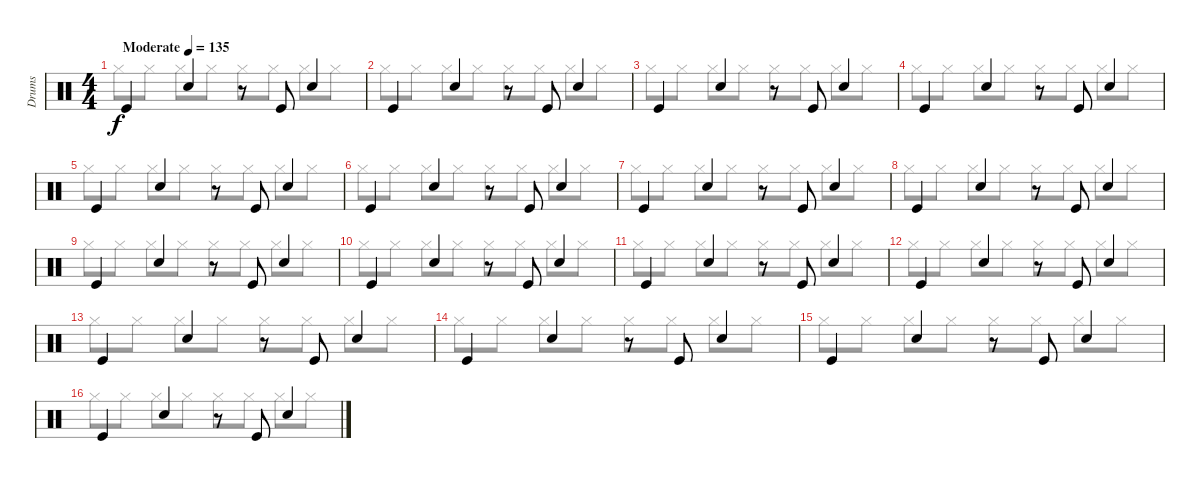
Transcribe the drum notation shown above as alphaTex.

\track ("Drums" "Drums") {instrument percussion}
\staff {score}
\articulation defaults
\voice
\ts (4 4)
\tempo (135 "Moderate")
\clef neutral
\ks c "Kick (hit)".4{dy f} "Snare (hit) 2".4
r.8 "Kick (hit)".8 "Snare (hit) 2".4 |
"Kick (hit)".4 "Snare (hit) 2".4 r.8 "Kick (hit)".8 "Snare (hit) 2".4 |
"Kick (hit)".4 "Snare (hit) 2".4 r.8 "Kick (hit)".8 "Snare (hit) 2".4 |
"Kick (hit)".4 "Snare (hit) 2".4 r.8 "Kick (hit)".8 "Snare (hit) 2".4 |
"Kick (hit)".4 "Snare (hit) 2".4 r.8 "Kick (hit)".8 "Snare (hit) 2".4 |
"Kick (hit)".4 "Snare (hit) 2".4 r.8 "Kick (hit)".8 "Snare (hit) 2".4 |
"Kick (hit)".4 "Snare (hit) 2".4 r.8 "Kick (hit)".8 "Snare (hit) 2".4 |
"Kick (hit)".4 "Snare (hit) 2".4 r.8 "Kick (hit)".8 "Snare (hit) 2".4 |
"Kick (hit)".4 "Snare (hit) 2".4 r.8 "Kick (hit)".8 "Snare (hit) 2".4 |
"Kick (hit)".4 "Snare (hit) 2".4 r.8 "Kick (hit)".8 "Snare (hit) 2".4 |
"Kick (hit)".4 "Snare (hit) 2".4 r.8 "Kick (hit)".8 "Snare (hit) 2".4 |
"Kick (hit)".4 "Snare (hit) 2".4 r.8 "Kick (hit)".8 "Snare (hit) 2".4 |
"Kick (hit)".4 "Snare (hit) 2".4 r.8 "Kick (hit)".8 "Snare (hit) 2".4 |
"Kick (hit)".4 "Snare (hit) 2".4 r.8 "Kick (hit)".8 "Snare (hit) 2".4 |
"Kick (hit)".4 "Snare (hit) 2".4 r.8 "Kick (hit)".8 "Snare (hit) 2".4 |
"Kick (hit)".4 "Snare (hit) 2".4 r.8 "Kick (hit)".8 "Snare (hit) 2".4
\voice
\clef neutral
\ottava regular
\simile none
\ks c "Hi-Hat (closed)".8{dy f} "Hi-Hat (closed)".8 "Hi-Hat (closed)".8 "Hi-Hat (closed)".8 "Hi-Hat (closed)".8 "Hi-Hat (closed)".8 "Hi-Hat (closed)".8 "Hi-Hat (closed)".8
|
"Hi-Hat (closed)".8 "Hi-Hat (closed)".8 "Hi-Hat (closed)".8 "Hi-Hat (closed)".8 "Hi-Hat (closed)".8 "Hi-Hat (closed)".8 "Hi-Hat (closed)".8 "Hi-Hat (closed)".8 |
"Hi-Hat (closed)".8 "Hi-Hat (closed)".8 "Hi-Hat (closed)".8 "Hi-Hat (closed)".8 "Hi-Hat (closed)".8 "Hi-Hat (closed)".8 "Hi-Hat (closed)".8 "Hi-Hat (closed)".8 |
"Hi-Hat (closed)".8 "Hi-Hat (closed)".8 "Hi-Hat (closed)".8 "Hi-Hat (closed)".8 "Hi-Hat (closed)".8 "Hi-Hat (closed)".8 "Hi-Hat (closed)".8 "Hi-Hat (closed)".8 |
"Hi-Hat (closed)".8 "Hi-Hat (closed)".8 "Hi-Hat (closed)".8 "Hi-Hat (closed)".8 "Hi-Hat (closed)".8 "Hi-Hat (closed)".8 "Hi-Hat (closed)".8 "Hi-Hat (closed)".8 |
"Hi-Hat (closed)".8 "Hi-Hat (closed)".8 "Hi-Hat (closed)".8 "Hi-Hat (closed)".8 "Hi-Hat (closed)".8 "Hi-Hat (closed)".8 "Hi-Hat (closed)".8 "Hi-Hat (closed)".8 |
"Hi-Hat (closed)".8 "Hi-Hat (closed)".8 "Hi-Hat (closed)".8 "Hi-Hat (closed)".8 "Hi-Hat (closed)".8 "Hi-Hat (closed)".8 "Hi-Hat (closed)".8 "Hi-Hat (closed)".8 |
"Hi-Hat (closed)".8 "Hi-Hat (closed)".8 "Hi-Hat (closed)".8 "Hi-Hat (closed)".8 "Hi-Hat (closed)".8 "Hi-Hat (closed)".8 "Hi-Hat (closed)".8 "Hi-Hat (closed)".8 |
"Hi-Hat (closed)".8 "Hi-Hat (closed)".8 "Hi-Hat (closed)".8 "Hi-Hat (closed)".8 "Hi-Hat (closed)".8 "Hi-Hat (closed)".8 "Hi-Hat (closed)".8 "Hi-Hat (closed)".8 |
"Hi-Hat (closed)".8 "Hi-Hat (closed)".8 "Hi-Hat (closed)".8 "Hi-Hat (closed)".8 "Hi-Hat (closed)".8 "Hi-Hat (closed)".8 "Hi-Hat (closed)".8 "Hi-Hat (closed)".8 |
"Hi-Hat (closed)".8 "Hi-Hat (closed)".8 "Hi-Hat (closed)".8 "Hi-Hat (closed)".8 "Hi-Hat (closed)".8 "Hi-Hat (closed)".8 "Hi-Hat (closed)".8 "Hi-Hat (closed)".8 |
"Hi-Hat (closed)".8 "Hi-Hat (closed)".8 "Hi-Hat (closed)".8 "Hi-Hat (closed)".8 "Hi-Hat (closed)".8 "Hi-Hat (closed)".8 "Hi-Hat (closed)".8 "Hi-Hat (closed)".8 |
"Hi-Hat (closed)".8 "Hi-Hat (closed)".8 "Hi-Hat (closed)".8 "Hi-Hat (closed)".8 "Hi-Hat (closed)".8 "Hi-Hat (closed)".8 "Hi-Hat (closed)".8 "Hi-Hat (closed)".8 |
"Hi-Hat (closed)".8 "Hi-Hat (closed)".8 "Hi-Hat (closed)".8 "Hi-Hat (closed)".8 "Hi-Hat (closed)".8 "Hi-Hat (closed)".8 "Hi-Hat (closed)".8 "Hi-Hat (closed)".8 |
"Hi-Hat (closed)".8 "Hi-Hat (closed)".8 "Hi-Hat (closed)".8 "Hi-Hat (closed)".8 "Hi-Hat (closed)".8 "Hi-Hat (closed)".8 "Hi-Hat (closed)".8 "Hi-Hat (closed)".8 |
"Hi-Hat (closed)".8 "Hi-Hat (closed)".8 "Hi-Hat (closed)".8 "Hi-Hat (closed)".8 "Hi-Hat (closed)".8 "Hi-Hat (closed)".8 "Hi-Hat (closed)".8 "Hi-Hat (closed)".8
